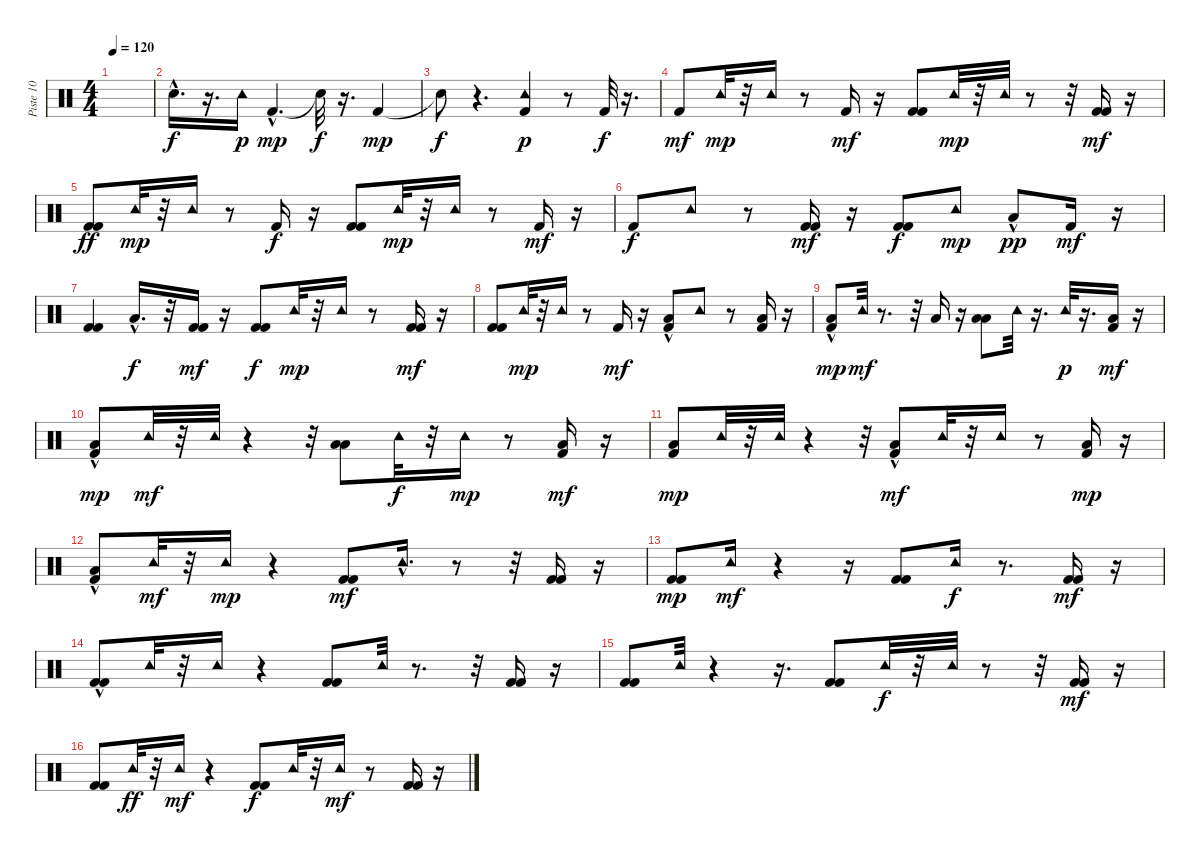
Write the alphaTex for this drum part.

\track ("Piste 10" "Piste 10") {instrument percussion}
\staff {score}
\articulation defaults
\ts (4 4)
\tempo 120
\clef neutral
\ks c
|
"Snare (hit)"{hac}.16{d} r.16{d} "Tambourine (hit)".16{dy p} "Kick (hit) 2"{hac}.4{d dy mp} "Snare (hit)"{t}.32{dy f} r.16{d} "Kick (hit) 2".4{dy mp} |
"Snare (hit)"{t}.8{dy f} r.4{d} ("Kick (hit) 2" "Tambourine (hit)").4{dy p} r.8 "Kick (hit) 2".32{dy f} r.16{d} |
"Kick (hit) 2".8{dy mf} "Tambourine (hit)".32{dy mp} r.32 "Tambourine (hit)".16 r.8 "Kick (hit) 2".16{dy mf} r.16 ("Kick (hit) 2" "Kick (hit) 2").8 "Tambourine (hit)".32{dy mp} r.32 "Tambourine (hit)".32 r.8 r.32 ("Kick (hit) 2" "Kick (hit) 2").16{dy mf} r.16 |
("Kick (hit) 2" "Kick (hit) 2").8{dy ff} "Tambourine (hit)".32{dy mp} r.32 "Tambourine (hit)".16 r.8 "Kick (hit) 2".16{dy f} r.16 ("Kick (hit) 2" "Kick (hit) 2").8 "Tambourine (hit)".32{dy mp} r.32 "Tambourine (hit)".16 r.8 "Kick (hit) 2".16{dy mf} r.16 |
"Kick (hit) 2".8{dy f} "Tambourine (hit)".8 r.8 ("Kick (hit) 2" "Kick (hit) 2").16{dy mf} r.16 ("Kick (hit) 2" "Kick (hit) 2").8{dy f} "Tambourine (hit)".8{dy mp} "Low Tom (hit)"{hac}.8{dy pp} "Kick (hit) 2".16{dy mf} r.16 |
("Kick (hit) 2" "Kick (hit) 2").4 "Low Tom (hit)"{hac}.16{d dy f} r.32 ("Kick (hit) 2" "Kick (hit) 2").16{dy mf} r.16 ("Kick (hit) 2" "Kick (hit) 2").8{dy f} "Tambourine (hit)".32{dy mp} r.32 "Tambourine (hit)".16 r.8 ("Kick (hit) 2" "Kick (hit) 2").16{dy mf} r.16 |
("Kick (hit) 2" "Kick (hit) 2").8 "Tambourine (hit)".32{dy mp} r.32 "Tambourine (hit)".16 r.8 "Kick (hit) 2".16{dy mf} r.16 ("Low Tom (hit)" "Kick (hit) 2"{hac}).8 "Tambourine (hit)".8 r.8 ("Low Tom (hit)" "Kick (hit) 2").16 r.16 |
("Low Tom (hit)" "Kick (hit) 2"{hac}).8{dy mp} "Tambourine (hit)".32{dy mf} r.8{d} r.32 "Low Tom (hit)".16 r.16 ("Low Tom (hit)" "Low Tom (hit)").8 "Tambourine (hit)".32 r.16{d} "Tambourine (hit)".32{dy p} r.16{d} ("Low Tom (hit)" "Kick (hit) 2").16{dy mf} r.16 |
("Low Tom (hit)"{hac} "Kick (hit) 2"{hac}).8{dy mp} "Tambourine (hit)".32{dy mf} r.32 "Tambourine (hit)".32 r.4 r.32 ("Low Tom (hit)" "Low Tom (hit)").8 "Tambourine (hit)".32{dy f} r.32 "Tambourine (hit)".16{dy mp} r.8 ("Kick (hit) 2" "Low Tom (hit)").16{dy mf} r.16 |
("Low Tom (hit)" "Kick (hit) 2").8{dy mp} "Tambourine (hit)".32 r.32 "Tambourine (hit)".32 r.4 r.32 ("Low Tom (hit)" "Kick (hit) 2"{hac}).8{dy mf} "Tambourine (hit)".32 r.32 "Tambourine (hit)".16 r.8 ("Low Tom (hit)" "Kick (hit) 2").16{dy mp} r.16 |
("Low Tom (hit)" "Kick (hit) 2"{hac}).8 "Tambourine (hit)".32{dy mf} r.32 "Tambourine (hit)".16{dy mp} r.4 ("Kick (hit) 2" "Kick (hit) 2").8{dy mf} "Tambourine (hit)"{hac}.16{d} r.8 r.32 ("Kick (hit) 2" "Kick (hit) 2").16 r.16 |
("Kick (hit) 2" "Kick (hit) 2").8{dy mp} "Tambourine (hit)".16{dy mf} r.4 r.16 ("Kick (hit) 2" "Kick (hit) 2").8 "Tambourine (hit)".16{dy f} r.8{d} ("Kick (hit) 2" "Kick (hit) 2").16{dy mf} r.16 |
("Kick (hit) 2"{hac} "Kick (hit) 2"{hac}).8 "Tambourine (hit)".32 r.32 "Tambourine (hit)".16 r.4 ("Kick (hit) 2" "Kick (hit) 2").8 "Tambourine (hit)".32 r.8{d} r.32 ("Kick (hit) 2" "Kick (hit) 2").16 r.16 |
("Kick (hit) 2" "Kick (hit) 2").8 "Tambourine (hit)".32 r.4 r.16{d} ("Kick (hit) 2" "Kick (hit) 2").8 "Tambourine (hit)".32{dy f} r.32 "Tambourine (hit)".32 r.8 r.32 ("Kick (hit) 2" "Kick (hit) 2").16{dy mf} r.16 |
("Kick (hit) 2" "Kick (hit) 2").8 "Tambourine (hit)".32{dy ff} r.32 "Tambourine (hit)".16{dy mf} r.4 ("Kick (hit) 2" "Kick (hit) 2").8{dy f} "Tambourine (hit)".32 r.32 "Tambourine (hit)".16{dy mf} r.8 ("Kick (hit) 2" "Kick (hit) 2").16 r.16
